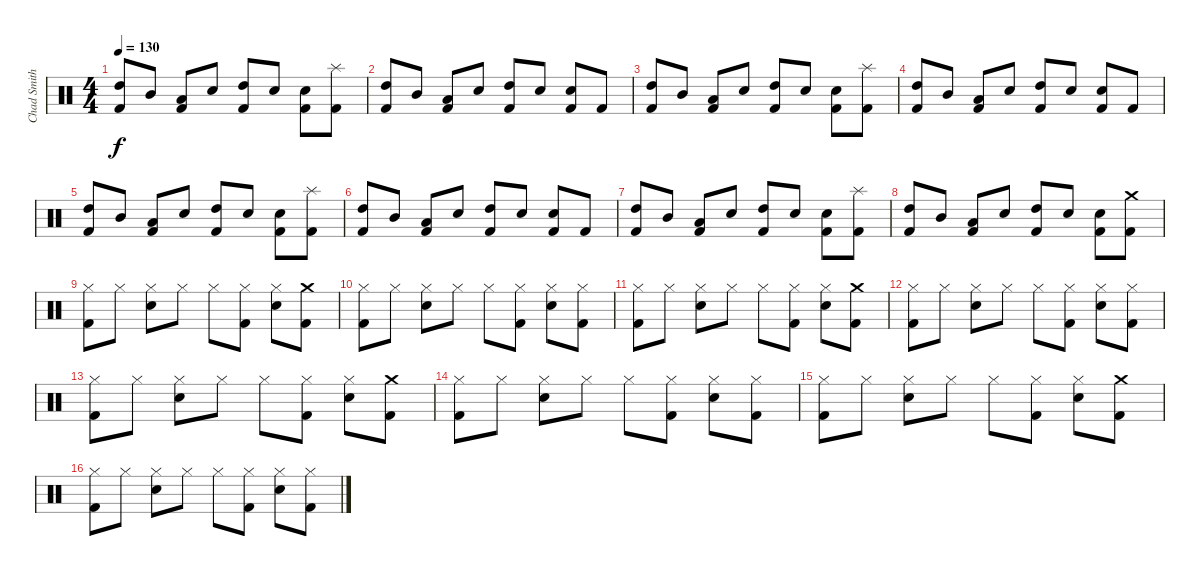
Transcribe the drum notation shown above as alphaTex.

\track ("Chad Smith" "Chad Smith") {instrument percussion}
\staff {score}
\articulation defaults
\ts (4 4)
\tempo 130
\clef neutral
\ks c
("High Tom (hit)" "Kick (hit) 2").8{dy f} "Mid Tom (hit)".8 ("Low Tom (hit)" "Kick (hit) 2").8 "Electric Snare (hit)".8 ("High Tom (hit)" "Kick (hit) 2").8 "Electric Snare (hit)".8 ("Electric Snare (hit)" "Kick (hit) 2").8 ("Splash (hit)" "Kick (hit) 2").8 |
("High Tom (hit)" "Kick (hit) 2").8 "Mid Tom (hit)".8 ("Low Tom (hit)" "Kick (hit) 2").8 "Electric Snare (hit)".8 ("High Tom (hit)" "Kick (hit) 2").8 "Electric Snare (hit)".8 ("Electric Snare (hit)" "Kick (hit) 2").8 "Kick (hit) 2".8 |
("High Tom (hit)" "Kick (hit) 2").8 "Mid Tom (hit)".8 ("Low Tom (hit)" "Kick (hit) 2").8 "Electric Snare (hit)".8 ("High Tom (hit)" "Kick (hit) 2").8 "Electric Snare (hit)".8 ("Electric Snare (hit)" "Kick (hit) 2").8 ("Splash (hit)" "Kick (hit) 2").8 |
("High Tom (hit)" "Kick (hit) 2").8 "Mid Tom (hit)".8 ("Low Tom (hit)" "Kick (hit) 2").8 "Electric Snare (hit)".8 ("High Tom (hit)" "Kick (hit) 2").8 "Electric Snare (hit)".8 ("Electric Snare (hit)" "Kick (hit) 2").8 "Kick (hit) 2".8 |
("High Tom (hit)" "Kick (hit) 2").8 "Mid Tom (hit)".8 ("Low Tom (hit)" "Kick (hit) 2").8 "Electric Snare (hit)".8 ("High Tom (hit)" "Kick (hit) 2").8 "Electric Snare (hit)".8 ("Electric Snare (hit)" "Kick (hit) 2").8 ("Splash (hit)" "Kick (hit) 2").8 |
("High Tom (hit)" "Kick (hit) 2").8 "Mid Tom (hit)".8 ("Low Tom (hit)" "Kick (hit) 2").8 "Electric Snare (hit)".8 ("High Tom (hit)" "Kick (hit) 2").8 "Electric Snare (hit)".8 ("Electric Snare (hit)" "Kick (hit) 2").8 "Kick (hit) 2".8 |
("High Tom (hit)" "Kick (hit) 2").8 "Mid Tom (hit)".8 ("Low Tom (hit)" "Kick (hit) 2").8 "Electric Snare (hit)".8 ("High Tom (hit)" "Kick (hit) 2").8 "Electric Snare (hit)".8 ("Electric Snare (hit)" "Kick (hit) 2").8 ("Splash (hit)" "Kick (hit) 2").8 |
("High Tom (hit)" "Kick (hit) 2").8 "Mid Tom (hit)".8 ("Low Tom (hit)" "Kick (hit) 2").8 "Electric Snare (hit)".8 ("High Tom (hit)" "Kick (hit) 2").8 "Electric Snare (hit)".8 ("Electric Snare (hit)" "Kick (hit) 2").8 ("Crash medium (hit)" "Kick (hit) 2").8 |
("Hi-Hat (closed)" "Kick (hit) 2").8 "Hi-Hat (closed)".8 ("Hi-Hat (closed)" "Electric Snare (hit)").8 "Hi-Hat (closed)".8 "Hi-Hat (closed)".8 ("Hi-Hat (closed)" "Kick (hit) 2").8 ("Hi-Hat (closed)" "Electric Snare (hit)").8 ("Crash medium (hit)" "Kick (hit) 2").8 |
("Hi-Hat (closed)" "Kick (hit) 2").8 "Hi-Hat (closed)".8 ("Hi-Hat (closed)" "Electric Snare (hit)").8 "Hi-Hat (closed)".8 "Hi-Hat (closed)".8 ("Hi-Hat (closed)" "Kick (hit) 2").8 ("Hi-Hat (closed)" "Electric Snare (hit)").8 ("Hi-Hat (closed)" "Kick (hit) 2").8 |
("Hi-Hat (closed)" "Kick (hit) 2").8 "Hi-Hat (closed)".8 ("Hi-Hat (closed)" "Electric Snare (hit)").8 "Hi-Hat (closed)".8 "Hi-Hat (closed)".8 ("Hi-Hat (closed)" "Kick (hit) 2").8 ("Hi-Hat (closed)" "Electric Snare (hit)").8 ("Crash medium (hit)" "Kick (hit) 2").8 |
("Hi-Hat (closed)" "Kick (hit) 2").8 "Hi-Hat (closed)".8 ("Hi-Hat (closed)" "Electric Snare (hit)").8 "Hi-Hat (closed)".8 "Hi-Hat (closed)".8 ("Hi-Hat (closed)" "Kick (hit) 2").8 ("Hi-Hat (closed)" "Electric Snare (hit)").8 ("Hi-Hat (closed)" "Kick (hit) 2").8 |
("Hi-Hat (closed)" "Kick (hit) 2").8 "Hi-Hat (closed)".8 ("Hi-Hat (closed)" "Electric Snare (hit)").8 "Hi-Hat (closed)".8 "Hi-Hat (closed)".8 ("Hi-Hat (closed)" "Kick (hit) 2").8 ("Hi-Hat (closed)" "Electric Snare (hit)").8 ("Crash medium (hit)" "Kick (hit) 2").8 |
("Hi-Hat (closed)" "Kick (hit) 2").8 "Hi-Hat (closed)".8 ("Hi-Hat (closed)" "Electric Snare (hit)").8 "Hi-Hat (closed)".8 "Hi-Hat (closed)".8 ("Hi-Hat (closed)" "Kick (hit) 2").8 ("Hi-Hat (closed)" "Electric Snare (hit)").8 ("Hi-Hat (closed)" "Kick (hit) 2").8 |
("Hi-Hat (closed)" "Kick (hit) 2").8 "Hi-Hat (closed)".8 ("Hi-Hat (closed)" "Electric Snare (hit)").8 "Hi-Hat (closed)".8 "Hi-Hat (closed)".8 ("Hi-Hat (closed)" "Kick (hit) 2").8 ("Hi-Hat (closed)" "Electric Snare (hit)").8 ("Crash medium (hit)" "Kick (hit) 2").8 |
("Hi-Hat (closed)" "Kick (hit) 2").8 "Hi-Hat (closed)".8 ("Hi-Hat (closed)" "Electric Snare (hit)").8 "Hi-Hat (closed)".8 "Hi-Hat (closed)".8 ("Hi-Hat (closed)" "Kick (hit) 2").8 ("Hi-Hat (closed)" "Electric Snare (hit)").8 ("Hi-Hat (closed)" "Kick (hit) 2").8
